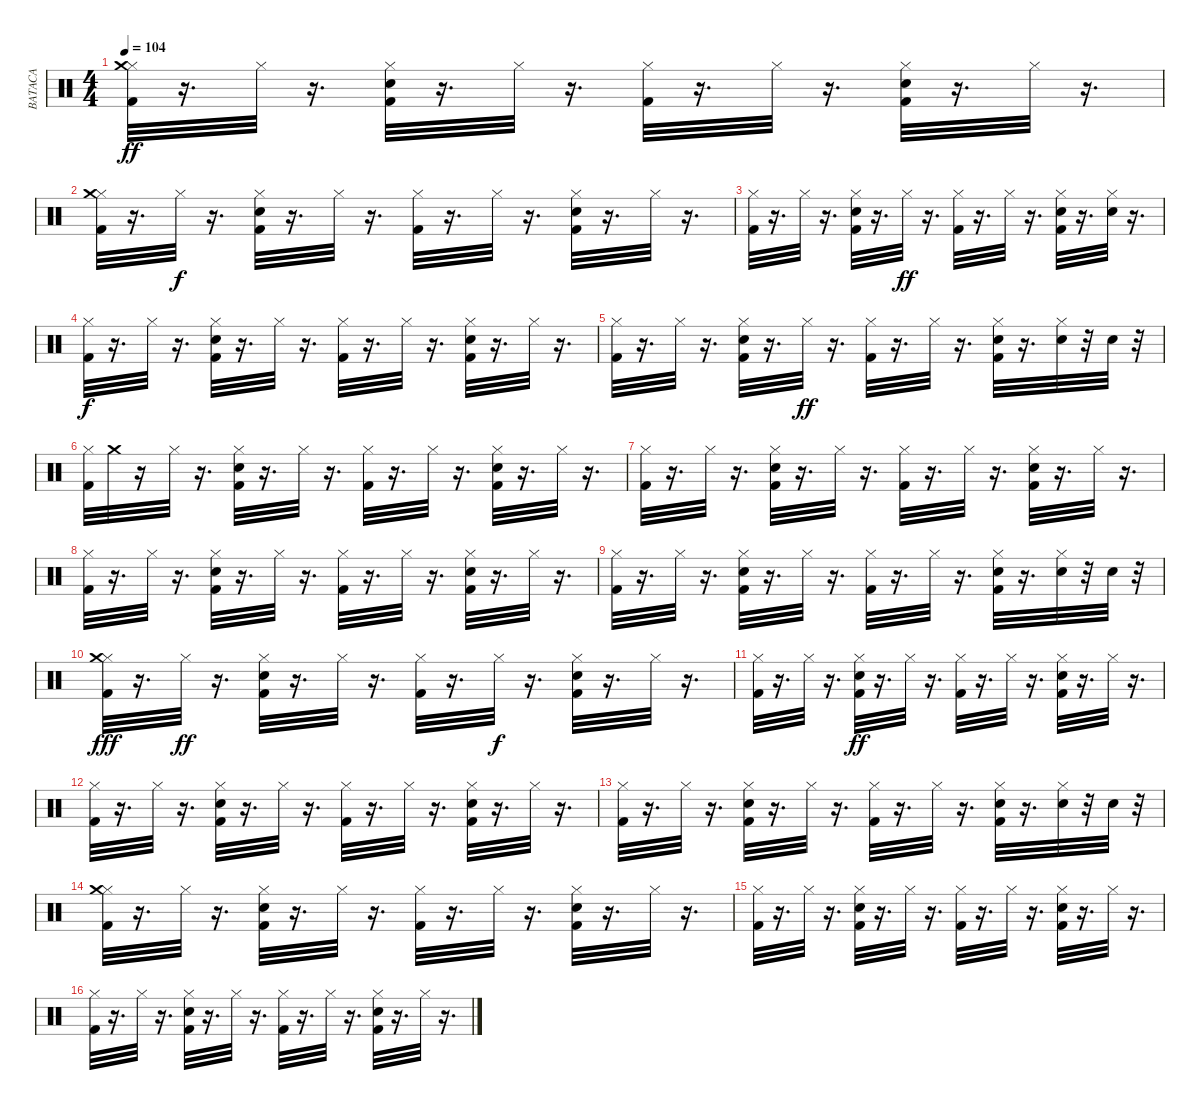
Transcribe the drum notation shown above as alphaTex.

\track ("BATACA" "BATACA") {instrument percussion}
\staff {score}
\articulation defaults
\ts (4 4)
\tempo 104
\clef neutral
\ks c
("Hi-Hat (closed)" "Kick (hit) 2" "Crash medium (hit)").32{dy ff} r.16{d} "Hi-Hat (closed)".32 r.16{d} ("Hi-Hat (closed)" "Kick (hit) 2" "Electric Snare (hit)").32 r.16{d} "Hi-Hat (closed)".32 r.16{d} ("Hi-Hat (closed)" "Kick (hit) 2").32 r.16{d} "Hi-Hat (closed)".32 r.16{d} ("Hi-Hat (closed)" "Kick (hit) 2" "Electric Snare (hit)").32 r.16{d} "Hi-Hat (closed)".32 r.16{d} |
("Hi-Hat (closed)" "Kick (hit) 2" "Crash medium (hit)").32 r.16{d} "Hi-Hat (closed)".32{dy f} r.16{d} ("Hi-Hat (closed)" "Kick (hit) 2" "Electric Snare (hit)").32 r.16{d} "Hi-Hat (closed)".32 r.16{d} ("Hi-Hat (closed)" "Kick (hit) 2").32 r.16{d} "Hi-Hat (closed)".32 r.16{d} ("Hi-Hat (closed)" "Kick (hit) 2" "Electric Snare (hit)").32 r.16{d} "Hi-Hat (closed)".32 r.16{d} |
("Hi-Hat (closed)" "Kick (hit) 2").32 r.16{d} "Hi-Hat (closed)".32 r.16{d} ("Hi-Hat (closed)" "Kick (hit) 2" "Electric Snare (hit)").32 r.16{d} "Hi-Hat (closed)".32{dy ff} r.16{d} ("Hi-Hat (closed)" "Kick (hit) 2").32 r.16{d} "Hi-Hat (closed)".32 r.16{d} ("Hi-Hat (closed)" "Kick (hit) 2" "Electric Snare (hit)").32 r.16{d} ("Hi-Hat (closed)" "Electric Snare (hit)").32 r.16{d} |
("Hi-Hat (closed)" "Kick (hit) 2").32{dy f} r.16{d} "Hi-Hat (closed)".32 r.16{d} ("Hi-Hat (closed)" "Kick (hit) 2" "Electric Snare (hit)").32 r.16{d} "Hi-Hat (closed)".32 r.16{d} ("Hi-Hat (closed)" "Kick (hit) 2").32 r.16{d} "Hi-Hat (closed)".32 r.16{d} ("Hi-Hat (closed)" "Kick (hit) 2" "Electric Snare (hit)").32 r.16{d} "Hi-Hat (closed)".32 r.16{d} |
("Hi-Hat (closed)" "Kick (hit) 2").32 r.16{d} "Hi-Hat (closed)".32 r.16{d} ("Hi-Hat (closed)" "Kick (hit) 2" "Electric Snare (hit)").32 r.16{d} "Hi-Hat (closed)".32{dy ff} r.16{d} ("Hi-Hat (closed)" "Kick (hit) 2").32 r.16{d} "Hi-Hat (closed)".32 r.16{d} ("Hi-Hat (closed)" "Kick (hit) 2" "Electric Snare (hit)").32 r.16{d} ("Hi-Hat (closed)" "Electric Snare (hit)").32 r.32 "Electric Snare (hit)".32 r.32 |
("Hi-Hat (closed)" "Kick (hit) 2").32 "Crash medium (hit)".32 r.16 "Hi-Hat (closed)".32 r.16{d} ("Hi-Hat (closed)" "Kick (hit) 2" "Electric Snare (hit)").32 r.16{d} "Hi-Hat (closed)".32 r.16{d} ("Hi-Hat (closed)" "Kick (hit) 2").32 r.16{d} "Hi-Hat (closed)".32 r.16{d} ("Hi-Hat (closed)" "Kick (hit) 2" "Electric Snare (hit)").32 r.16{d} "Hi-Hat (closed)".32 r.16{d} |
("Hi-Hat (closed)" "Kick (hit) 2").32 r.16{d} "Hi-Hat (closed)".32 r.16{d} ("Hi-Hat (closed)" "Kick (hit) 2" "Electric Snare (hit)").32 r.16{d} "Hi-Hat (closed)".32 r.16{d} ("Hi-Hat (closed)" "Kick (hit) 2").32 r.16{d} "Hi-Hat (closed)".32 r.16{d} ("Hi-Hat (closed)" "Kick (hit) 2" "Electric Snare (hit)").32 r.16{d} "Hi-Hat (closed)".32 r.16{d} |
("Hi-Hat (closed)" "Kick (hit) 2").32 r.16{d} "Hi-Hat (closed)".32 r.16{d} ("Hi-Hat (closed)" "Kick (hit) 2" "Electric Snare (hit)").32 r.16{d} "Hi-Hat (closed)".32 r.16{d} ("Hi-Hat (closed)" "Kick (hit) 2").32 r.16{d} "Hi-Hat (closed)".32 r.16{d} ("Hi-Hat (closed)" "Kick (hit) 2" "Electric Snare (hit)").32 r.16{d} "Hi-Hat (closed)".32 r.16{d} |
("Hi-Hat (closed)" "Kick (hit) 2").32 r.16{d} "Hi-Hat (closed)".32 r.16{d} ("Hi-Hat (closed)" "Kick (hit) 2" "Electric Snare (hit)").32 r.16{d} "Hi-Hat (closed)".32 r.16{d} ("Hi-Hat (closed)" "Kick (hit) 2").32 r.16{d} "Hi-Hat (closed)".32 r.16{d} ("Hi-Hat (closed)" "Kick (hit) 2" "Electric Snare (hit)").32 r.16{d} ("Hi-Hat (closed)" "Electric Snare (hit)").32 r.32 "Electric Snare (hit)".32 r.32 |
("Hi-Hat (closed)" "Kick (hit) 2" "Crash medium (hit)").32{dy fff} r.16{d} "Hi-Hat (closed)".32{dy ff} r.16{d} ("Hi-Hat (closed)" "Kick (hit) 2" "Electric Snare (hit)").32 r.16{d} "Hi-Hat (closed)".32 r.16{d} ("Hi-Hat (closed)" "Kick (hit) 2").32 r.16{d} "Hi-Hat (closed)".32{dy f} r.16{d} ("Hi-Hat (closed)" "Kick (hit) 2" "Electric Snare (hit)").32 r.16{d} "Hi-Hat (closed)".32 r.16{d} |
("Hi-Hat (closed)" "Kick (hit) 2").32 r.16{d} "Hi-Hat (closed)".32 r.16{d} ("Hi-Hat (closed)" "Kick (hit) 2" "Electric Snare (hit)").32{dy ff} r.16{d} "Hi-Hat (closed)".32 r.16{d} ("Hi-Hat (closed)" "Kick (hit) 2").32 r.16{d} "Hi-Hat (closed)".32 r.16{d} ("Hi-Hat (closed)" "Kick (hit) 2" "Electric Snare (hit)").32 r.16{d} "Hi-Hat (closed)".32 r.16{d} |
("Hi-Hat (closed)" "Kick (hit) 2").32 r.16{d} "Hi-Hat (closed)".32 r.16{d} ("Hi-Hat (closed)" "Kick (hit) 2" "Electric Snare (hit)").32 r.16{d} "Hi-Hat (closed)".32 r.16{d} ("Hi-Hat (closed)" "Kick (hit) 2").32 r.16{d} "Hi-Hat (closed)".32 r.16{d} ("Hi-Hat (closed)" "Kick (hit) 2" "Electric Snare (hit)").32 r.16{d} "Hi-Hat (closed)".32 r.16{d} |
("Hi-Hat (closed)" "Kick (hit) 2").32 r.16{d} "Hi-Hat (closed)".32 r.16{d} ("Hi-Hat (closed)" "Kick (hit) 2" "Electric Snare (hit)").32 r.16{d} "Hi-Hat (closed)".32 r.16{d} ("Hi-Hat (closed)" "Kick (hit) 2").32 r.16{d} "Hi-Hat (closed)".32 r.16{d} ("Hi-Hat (closed)" "Kick (hit) 2" "Electric Snare (hit)").32 r.16{d} ("Hi-Hat (closed)" "Electric Snare (hit)").32 r.32 "Electric Snare (hit)".32 r.32 |
("Hi-Hat (closed)" "Kick (hit) 2" "Crash medium (hit)").32 r.16{d} "Hi-Hat (closed)".32 r.16{d} ("Hi-Hat (closed)" "Kick (hit) 2" "Electric Snare (hit)").32 r.16{d} "Hi-Hat (closed)".32 r.16{d} ("Hi-Hat (closed)" "Kick (hit) 2").32 r.16{d} "Hi-Hat (closed)".32 r.16{d} ("Hi-Hat (closed)" "Kick (hit) 2" "Electric Snare (hit)").32 r.16{d} "Hi-Hat (closed)".32 r.16{d} |
("Hi-Hat (closed)" "Kick (hit) 2").32 r.16{d} "Hi-Hat (closed)".32 r.16{d} ("Hi-Hat (closed)" "Kick (hit) 2" "Electric Snare (hit)").32 r.16{d} "Hi-Hat (closed)".32 r.16{d} ("Hi-Hat (closed)" "Kick (hit) 2").32 r.16{d} "Hi-Hat (closed)".32 r.16{d} ("Hi-Hat (closed)" "Kick (hit) 2" "Electric Snare (hit)").32 r.16{d} "Hi-Hat (closed)".32 r.16{d} |
("Hi-Hat (closed)" "Kick (hit) 2").32 r.16{d} "Hi-Hat (closed)".32 r.16{d} ("Hi-Hat (closed)" "Kick (hit) 2" "Electric Snare (hit)").32 r.16{d} "Hi-Hat (closed)".32 r.16{d} ("Hi-Hat (closed)" "Kick (hit) 2").32 r.16{d} "Hi-Hat (closed)".32 r.16{d} ("Hi-Hat (closed)" "Kick (hit) 2" "Electric Snare (hit)").32 r.16{d} "Hi-Hat (closed)".32 r.16{d}
